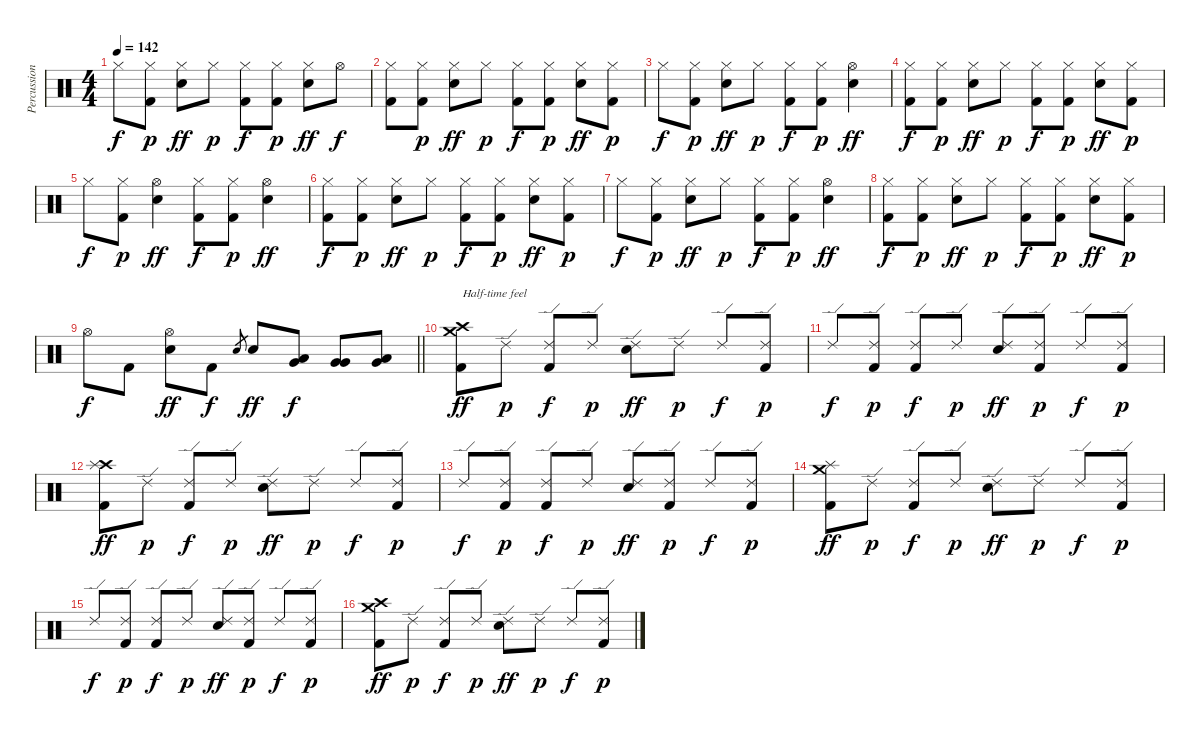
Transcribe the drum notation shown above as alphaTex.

\track ("Percussion" "Percussion") {instrument percussion}
\staff {score}
\articulation defaults
\ts (4 4)
\tempo 142
\clef neutral
\ks c "Hi-Hat (closed)".8{dy f}
("Hi-Hat (closed)" "Kick (hit) 2").8{dy p} ("Hi-Hat (closed)" "Snare (hit) 2").8{dy ff} "Hi-Hat (closed)".8{dy p} ("Hi-Hat (closed)" "Kick (hit) 2").8{dy f} ("Hi-Hat (closed)" "Kick (hit) 2").8{dy p} ("Hi-Hat (closed)" "Snare (hit) 2").8{dy ff} "Hi-Hat (open)".8{dy f} |
("Hi-Hat (closed)" "Kick (hit) 2").8 ("Hi-Hat (closed)" "Kick (hit) 2").8{dy p} ("Hi-Hat (closed)" "Snare (hit) 2").8{dy ff} "Hi-Hat (closed)".8{dy p} ("Hi-Hat (closed)" "Kick (hit) 2").8{dy f} ("Hi-Hat (closed)" "Kick (hit) 2").8{dy p} ("Hi-Hat (closed)" "Snare (hit) 2").8{dy ff} ("Hi-Hat (closed)" "Kick (hit) 2").8{dy p} |
"Hi-Hat (closed)".8{dy f} ("Hi-Hat (closed)" "Kick (hit) 2").8{dy p} ("Hi-Hat (closed)" "Snare (hit) 2").8{dy ff} "Hi-Hat (closed)".8{dy p} ("Hi-Hat (closed)" "Kick (hit) 2").8{dy f} ("Hi-Hat (closed)" "Kick (hit) 2").8{dy p} ("Hi-Hat (open)" "Snare (hit) 2").4{dy ff} |
("Hi-Hat (closed)" "Kick (hit) 2").8{dy f} ("Hi-Hat (closed)" "Kick (hit) 2").8{dy p} ("Hi-Hat (closed)" "Snare (hit) 2").8{dy ff} "Hi-Hat (closed)".8{dy p} ("Hi-Hat (closed)" "Kick (hit) 2").8{dy f} ("Hi-Hat (closed)" "Kick (hit) 2").8{dy p} ("Hi-Hat (closed)" "Snare (hit) 2").8{dy ff} ("Hi-Hat (closed)" "Kick (hit) 2").8{dy p} |
"Hi-Hat (closed)".8{dy f} ("Hi-Hat (closed)" "Kick (hit) 2").8{dy p} ("Hi-Hat (open)" "Snare (hit) 2").4{dy ff} ("Hi-Hat (closed)" "Kick (hit) 2").8{dy f} ("Hi-Hat (closed)" "Kick (hit) 2").8{dy p} ("Hi-Hat (open)" "Snare (hit) 2").4{dy ff} |
("Hi-Hat (closed)" "Kick (hit) 2").8{dy f} ("Hi-Hat (closed)" "Kick (hit) 2").8{dy p} ("Hi-Hat (closed)" "Snare (hit) 2").8{dy ff} "Hi-Hat (closed)".8{dy p} ("Hi-Hat (closed)" "Kick (hit) 2").8{dy f} ("Hi-Hat (closed)" "Kick (hit) 2").8{dy p} ("Hi-Hat (closed)" "Snare (hit) 2").8{dy ff} ("Hi-Hat (closed)" "Kick (hit) 2").8{dy p} |
"Hi-Hat (closed)".8{dy f} ("Hi-Hat (closed)" "Kick (hit) 2").8{dy p} ("Hi-Hat (closed)" "Snare (hit) 2").8{dy ff} "Hi-Hat (closed)".8{dy p} ("Hi-Hat (closed)" "Kick (hit) 2").8{dy f} ("Hi-Hat (closed)" "Kick (hit) 2").8{dy p} ("Hi-Hat (open)" "Snare (hit) 2").4{dy ff} |
("Hi-Hat (closed)" "Kick (hit) 2").8{dy f} ("Hi-Hat (closed)" "Kick (hit) 2").8{dy p} ("Hi-Hat (closed)" "Snare (hit) 2").8{dy ff} "Hi-Hat (closed)".8{dy p} ("Hi-Hat (closed)" "Kick (hit) 2").8{dy f} ("Hi-Hat (closed)" "Kick (hit) 2").8{dy p} ("Hi-Hat (closed)" "Snare (hit) 2").8{dy ff} ("Hi-Hat (closed)" "Kick (hit) 2").8{dy p} |
\barLineRight lightlight "Hi-Hat (open)".8{dy f} "Kick (hit) 2".8
("Hi-Hat (open)" "Snare (hit) 2").8{dy ff} "Kick (hit) 2".8{dy f} "Snare (hit) 2".8{gr} "Snare (hit) 2".8{dy ff} ("Low Tom (hit)" "Very Low Tom (hit)").8{dy f} ("Very Low Tom (hit)" "Very Low Tom (hit)").8 ("Low Floor Tom (hit)" "Very Low Tom (hit)").8 |
("Crash high (hit)" "Crash medium (hit)" "Kick (hit) 2").8{txt "Half-time feel" dy ff} "Ride (edge) 2".8{dy p} ("Ride (edge) 2" "Kick (hit) 2").8{dy f} "Ride (edge) 2".8{dy p} ("Ride (edge) 2" "Snare (hit) 2").8{dy ff} "Ride (edge) 2".8{dy p} "Ride (edge) 2".8{dy f} ("Ride (edge) 2" "Kick (hit) 2").8{dy p} |
"Ride (edge) 2".8{dy f} ("Ride (edge) 2" "Kick (hit) 2").8{dy p} ("Ride (edge) 2" "Kick (hit) 2").8{dy f} "Ride (edge) 2".8{dy p} ("Ride (edge) 2" "Snare (hit) 2").8{dy ff} ("Ride (edge) 2" "Kick (hit) 2").8{dy p} "Ride (edge) 2".8{dy f} ("Ride (edge) 2" "Kick (hit) 2").8{dy p} |
("Crash high (hit)" "Splash (hit)" "Kick (hit) 2").8{dy ff} "Ride (edge) 2".8{dy p} ("Ride (edge) 2" "Kick (hit) 2").8{dy f} "Ride (edge) 2".8{dy p} ("Ride (edge) 2" "Snare (hit) 2").8{dy ff} "Ride (edge) 2".8{dy p} "Ride (edge) 2".8{dy f} ("Ride (edge) 2" "Kick (hit) 2").8{dy p} |
"Ride (edge) 2".8{dy f} ("Ride (edge) 2" "Kick (hit) 2").8{dy p} ("Ride (edge) 2" "Kick (hit) 2").8{dy f} "Ride (edge) 2".8{dy p} ("Ride (edge) 2" "Snare (hit) 2").8{dy ff} ("Ride (edge) 2" "Kick (hit) 2").8{dy p} "Ride (edge) 2".8{dy f} ("Ride (edge) 2" "Kick (hit) 2").8{dy p} |
("Crash medium (hit)" "Splash (hit)" "Kick (hit) 2").8{dy ff} "Ride (edge) 2".8{dy p} ("Ride (edge) 2" "Kick (hit) 2").8{dy f} "Ride (edge) 2".8{dy p} ("Ride (edge) 2" "Snare (hit) 2").8{dy ff} "Ride (edge) 2".8{dy p} "Ride (edge) 2".8{dy f} ("Ride (edge) 2" "Kick (hit) 2").8{dy p} |
"Ride (edge) 2".8{dy f} ("Ride (edge) 2" "Kick (hit) 2").8{dy p} ("Ride (edge) 2" "Kick (hit) 2").8{dy f} "Ride (edge) 2".8{dy p} ("Ride (edge) 2" "Snare (hit) 2").8{dy ff} ("Ride (edge) 2" "Kick (hit) 2").8{dy p} "Ride (edge) 2".8{dy f} ("Ride (edge) 2" "Kick (hit) 2").8{dy p} |
("Crash high (hit)" "Crash medium (hit)" "Kick (hit) 2").8{dy ff} "Ride (edge) 2".8{dy p} ("Ride (edge) 2" "Kick (hit) 2").8{dy f} "Ride (edge) 2".8{dy p} ("Ride (edge) 2" "Snare (hit) 2").8{dy ff} "Ride (edge) 2".8{dy p} "Ride (edge) 2".8{dy f} ("Ride (edge) 2" "Kick (hit) 2").8{dy p}
